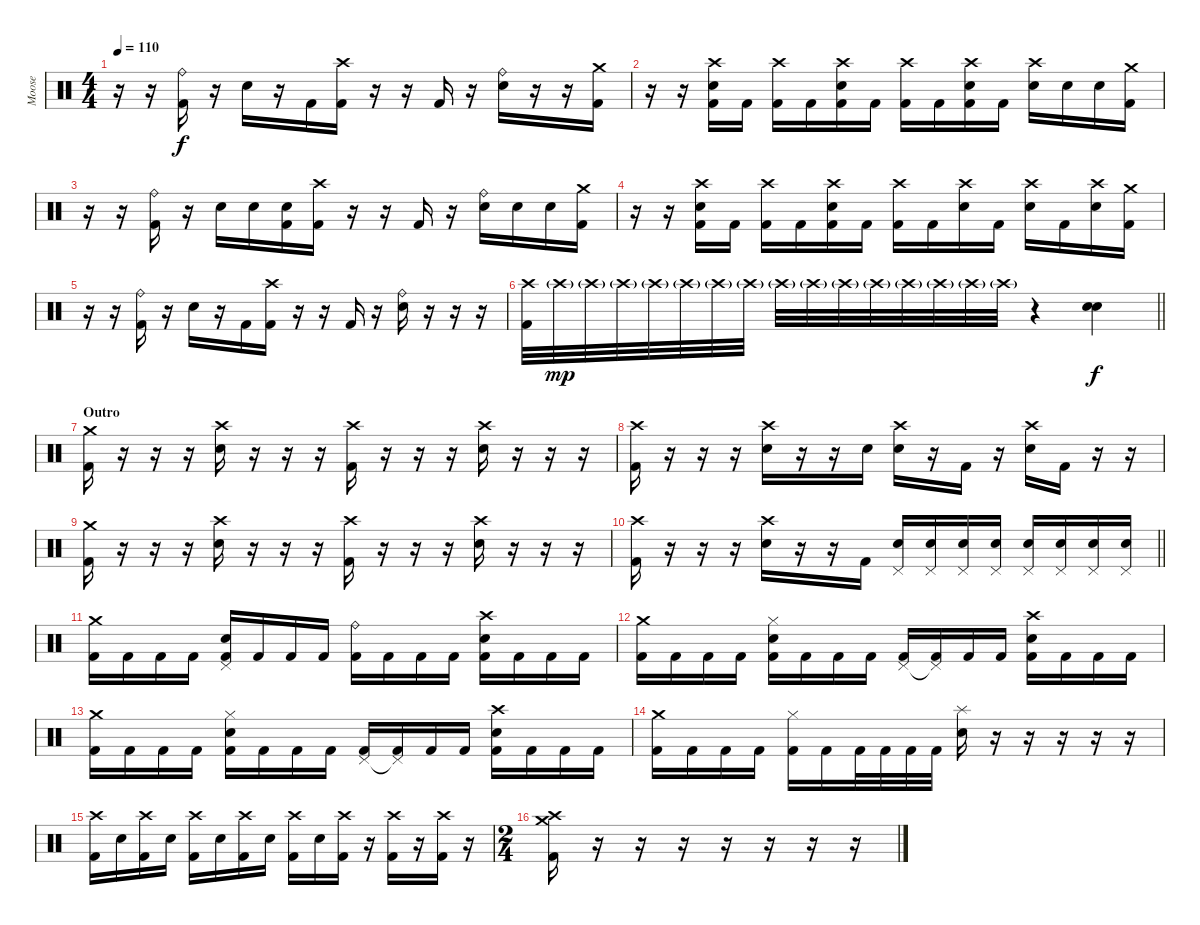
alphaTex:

\track ("Moose" "Moose") {instrument percussion}
\staff {score}
\articulation defaults
\ts (4 4)
\tempo 110
\clef neutral
\ks c
r.16{dy f} r.16 ("Ride (bell)" "Kick (hit) 2").16 r.16 "Electric Snare (hit)".16 r.16 "Kick (hit) 2".16 ("Crash high (hit)" "Kick (hit) 2").16 r.16 r.16 "Kick (hit) 2".16 r.16 ("Ride (bell)" "Electric Snare (hit)").16 r.16 r.16 ("Crash medium (hit)" "Kick (hit) 2").16 |
r.16 r.16 ("Crash high (hit)" "Electric Snare (hit)" "Kick (hit) 2").16 "Kick (hit) 2".16 ("Crash high (hit)" "Kick (hit) 2").16 "Kick (hit) 2".16 ("Crash high (hit)" "Electric Snare (hit)" "Kick (hit) 2").16 "Kick (hit) 2".16 ("Crash high (hit)" "Kick (hit) 2").16 "Kick (hit) 2".16 ("Crash high (hit)" "Electric Snare (hit)" "Kick (hit) 2").16 "Kick (hit) 2".16 ("Crash high (hit)" "Electric Snare (hit)").16 "Electric Snare (hit)".16 "Electric Snare (hit)".16 ("Crash medium (hit)" "Kick (hit) 2").16 |
r.16 r.16 ("Ride (bell)" "Kick (hit) 2").16 r.16 "Electric Snare (hit)".16 "Electric Snare (hit)".16 ("Electric Snare (hit)" "Kick (hit) 2").16 ("Crash high (hit)" "Kick (hit) 2").16 r.16 r.16 "Kick (hit) 2".16 r.16 ("Ride (bell)" "Electric Snare (hit)").16 "Electric Snare (hit)".16 "Electric Snare (hit)".16 ("Crash medium (hit)" "Kick (hit) 2").16 |
r.16 r.16 ("Crash high (hit)" "Electric Snare (hit)" "Kick (hit) 2").16 "Kick (hit) 2".16 ("Crash high (hit)" "Kick (hit) 2").16 "Kick (hit) 2".16 ("Crash high (hit)" "Electric Snare (hit)" "Kick (hit) 2").16 "Kick (hit) 2".16 ("Crash high (hit)" "Kick (hit) 2").16 "Kick (hit) 2".16 ("Crash high (hit)" "Electric Snare (hit)").16 "Kick (hit) 2".16 ("Crash high (hit)" "Electric Snare (hit)").16 "Kick (hit) 2".16 ("Crash high (hit)" "Electric Snare (hit)").16 ("Crash medium (hit)" "Kick (hit) 2").16 |
r.16 r.16 ("Ride (bell)" "Kick (hit) 2").16 r.16 "Electric Snare (hit)".16 r.16 "Kick (hit) 2".16 ("Crash high (hit)" "Kick (hit) 2").16 r.16 r.16 "Kick (hit) 2".16 r.16 ("Ride (bell)" "Electric Snare (hit)").16 r.16 r.16 r.16 |
\barLineRight lightlight
("Crash high (hit)" "Kick (hit) 2").32{volume 16} "Crash high (hit)"{g}.32{dy mp} "Crash high (hit)"{g}.32 "Crash high (hit)"{g}.32 "Crash high (hit)"{g}.32 "Crash high (hit)"{g}.32 "Crash high (hit)"{g}.32 "Crash high (hit)"{g}.32 "Crash high (hit)"{g}.32 "Crash high (hit)"{g}.32 "Crash high (hit)"{g}.32 "Crash high (hit)"{g}.32 "Crash high (hit)"{g}.32 "Crash high (hit)"{g}.32 "Crash high (hit)"{g}.32 "Crash high (hit)"{g}.32 r.4 ("Electric Snare (hit)" "Electric Snare (hit)").4{dy f} |
\section ("" "Outro")
("Crash medium (hit)" "Kick (hit) 2").16 r.16 r.16 r.16 ("Crash high (hit)" "Electric Snare (hit)").16 r.16 r.16 r.16 ("Crash high (hit)" "Kick (hit) 2").16 r.16 r.16 r.16 ("Crash high (hit)" "Electric Snare (hit)").16 r.16 r.16 r.16 |
("Crash high (hit)" "Kick (hit) 2").16 r.16 r.16 r.16 ("Crash high (hit)" "Electric Snare (hit)").16 r.16 r.16 "Electric Snare (hit)".16 ("Crash high (hit)" "Electric Snare (hit)").16 r.16 "Kick (hit) 2".16 r.16 ("Crash high (hit)" "Electric Snare (hit)").16 "Kick (hit) 2".16 r.16 r.16 |
("Crash medium (hit)" "Kick (hit) 2").16 r.16 r.16 r.16 ("Crash high (hit)" "Electric Snare (hit)").16 r.16 r.16 r.16 ("Crash high (hit)" "Kick (hit) 2").16 r.16 r.16 r.16 ("Crash high (hit)" "Electric Snare (hit)").16 r.16 r.16 r.16 |
\barLineRight lightlight
("Crash high (hit)" "Kick (hit) 2").16 r.16 r.16 r.16 ("Crash high (hit)" "Electric Snare (hit)").16 r.16 r.16 "Kick (hit) 2".16 ("Pedal Hi-Hat (hit)" "Electric Snare (hit)").16 ("Pedal Hi-Hat (hit)" "Electric Snare (hit)").16 ("Pedal Hi-Hat (hit)" "Electric Snare (hit)").16 ("Pedal Hi-Hat (hit)" "Electric Snare (hit)").16 ("Pedal Hi-Hat (hit)" "Electric Snare (hit)").16 ("Pedal Hi-Hat (hit)" "Electric Snare (hit)").16 ("Pedal Hi-Hat (hit)" "Electric Snare (hit)").16 ("Pedal Hi-Hat (hit)" "Electric Snare (hit)").16 |
("Crash medium (hit)" "Kick (hit) 2").16 "Kick (hit) 2".16 "Kick (hit) 2".16 "Kick (hit) 2".16 ("Pedal Hi-Hat (hit)" "Electric Snare (hit)" "Kick (hit) 2").16 "Kick (hit) 2".16 "Kick (hit) 2".16 "Kick (hit) 2".16 ("Ride (bell)" "Kick (hit) 2").16 "Kick (hit) 2".16 "Kick (hit) 2".16 "Kick (hit) 2".16 ("Crash high (hit)" "Electric Snare (hit)" "Kick (hit) 2").16 "Kick (hit) 2".16 "Kick (hit) 2".16 "Kick (hit) 2".16 |
("Crash medium (hit)" "Kick (hit) 2").16 "Kick (hit) 2".16 "Kick (hit) 2".16 "Kick (hit) 2".16 ("Hi-Hat (closed)" "Electric Snare (hit)" "Kick (hit) 2").16 "Kick (hit) 2".16 "Kick (hit) 2".16 "Kick (hit) 2".16 ("Pedal Hi-Hat (hit)" "Kick (hit) 2").16 ("Pedal Hi-Hat (hit)"{t} "Kick (hit) 2").16 "Kick (hit) 2".16 "Kick (hit) 2".16 ("Crash high (hit)" "Electric Snare (hit)" "Kick (hit) 2").16 "Kick (hit) 2".16 "Kick (hit) 2".16 "Kick (hit) 2".16 |
("Crash medium (hit)" "Kick (hit) 2").16 "Kick (hit) 2".16 "Kick (hit) 2".16 "Kick (hit) 2".16 ("Hi-Hat (closed)" "Electric Snare (hit)" "Kick (hit) 2").16 "Kick (hit) 2".16 "Kick (hit) 2".16 "Kick (hit) 2".16 ("Pedal Hi-Hat (hit)" "Kick (hit) 2").16 ("Pedal Hi-Hat (hit)"{t} "Kick (hit) 2").16 "Kick (hit) 2".16 "Kick (hit) 2".16 ("Crash high (hit)" "Electric Snare (hit)" "Kick (hit) 2").16 "Kick (hit) 2".16 "Kick (hit) 2".16 "Kick (hit) 2".16 |
("Crash medium (hit)" "Kick (hit) 2").16 "Kick (hit) 2".16 "Kick (hit) 2".16 "Kick (hit) 2".16 ("Hi-Hat (closed)" "Kick (hit) 2").16 "Kick (hit) 2".16 "Kick (hit) 2".32 "Kick (hit) 2".32 "Kick (hit) 2".32 "Kick (hit) 2".32 ("Splash (hit)" "Electric Snare (hit)").16 r.16 r.16 r.16 r.16 r.16 |
("Crash high (hit)" "Kick (hit) 2").16 "Electric Snare (hit)".16 ("Crash high (hit)" "Kick (hit) 2").16 "Electric Snare (hit)".16 ("Crash high (hit)" "Kick (hit) 2").16 "Electric Snare (hit)".16 ("Crash high (hit)" "Kick (hit) 2").16 "Electric Snare (hit)".16 ("Crash high (hit)" "Kick (hit) 2").16 "Electric Snare (hit)".16 ("Crash high (hit)" "Kick (hit) 2").16 r.16 ("Crash high (hit)" "Kick (hit) 2").16 r.16 ("Crash high (hit)" "Kick (hit) 2").16 r.16 |
\ts (2 4)
("Crash medium (hit)" "Crash high (hit)" "Kick (hit) 2").16 r.16 r.16 r.16 r.16 r.16 r.16 r.16
